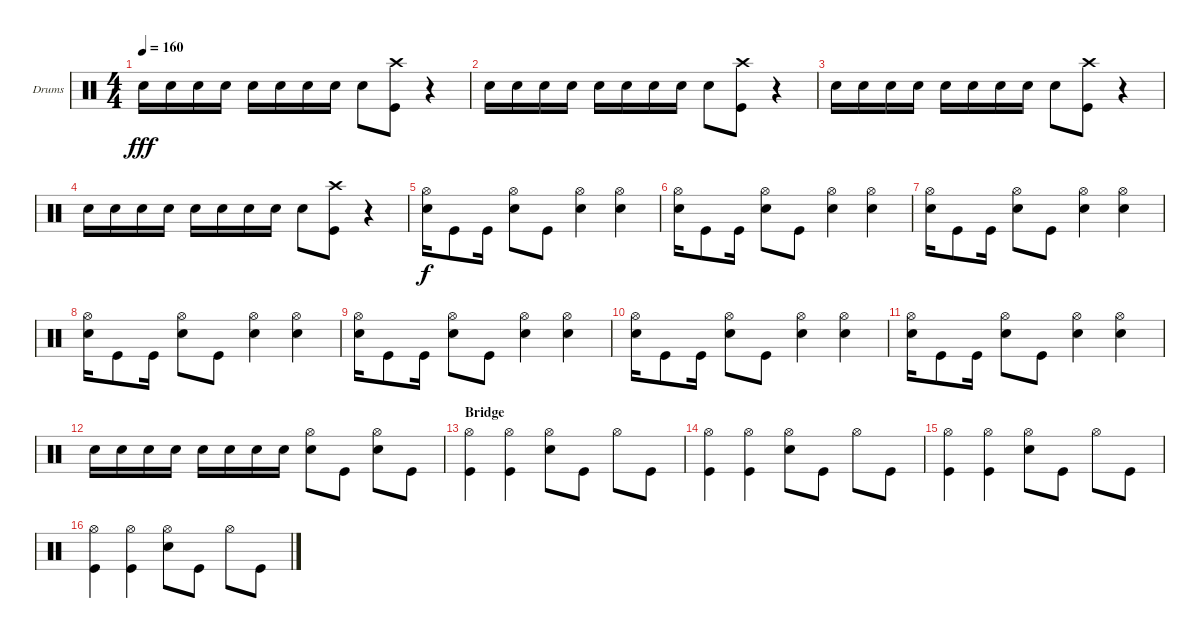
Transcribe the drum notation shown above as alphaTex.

\bracketExtendMode groupsimilarinstruments
\firstSystemTrackNameOrientation horizontal
\otherSystemsTrackNameOrientation horizontal
\track ("Lars Ulrich (Drum)" "Drums") {instrument percussion}
\staff {score}
\articulation defaults
\ts (4 4)
\tempo 160
\clef neutral
\ks c "Snare (hit) 2".16{dy fff} "Snare (hit) 2".16 "Snare (hit) 2".16 "Snare (hit) 2".16 "Snare (hit) 2".16 "Snare (hit) 2".16 "Snare (hit) 2".16 "Snare (hit) 2".16 "Snare (hit) 2".8
("Crash high (hit)" "Kick (hit)").8 r.4 |
"Snare (hit) 2".16 "Snare (hit) 2".16 "Snare (hit) 2".16 "Snare (hit) 2".16 "Snare (hit) 2".16 "Snare (hit) 2".16 "Snare (hit) 2".16 "Snare (hit) 2".16 "Snare (hit) 2".8 ("Crash high (hit)" "Kick (hit)").8 r.4 |
"Snare (hit) 2".16 "Snare (hit) 2".16 "Snare (hit) 2".16 "Snare (hit) 2".16 "Snare (hit) 2".16 "Snare (hit) 2".16 "Snare (hit) 2".16 "Snare (hit) 2".16 "Snare (hit) 2".8 ("Crash high (hit)" "Kick (hit)").8 r.4 |
"Snare (hit) 2".16 "Snare (hit) 2".16 "Snare (hit) 2".16 "Snare (hit) 2".16 "Snare (hit) 2".16 "Snare (hit) 2".16 "Snare (hit) 2".16 "Snare (hit) 2".16 "Snare (hit) 2".8 ("Crash high (hit)" "Kick (hit)").8 r.4 |
("Hi-Hat (open)" "Snare (hit) 2").16{dy f} "Kick (hit)".8 "Kick (hit)".16 ("Hi-Hat (open)" "Snare (hit) 2").8 "Kick (hit)".8 ("Hi-Hat (open)" "Snare (hit) 2").4 ("Hi-Hat (open)" "Snare (hit) 2").4 |
("Hi-Hat (open)" "Snare (hit) 2").16 "Kick (hit)".8 "Kick (hit)".16 ("Hi-Hat (open)" "Snare (hit) 2").8 "Kick (hit)".8 ("Hi-Hat (open)" "Snare (hit) 2").4 ("Hi-Hat (open)" "Snare (hit) 2").4 |
("Hi-Hat (open)" "Snare (hit) 2").16 "Kick (hit)".8 "Kick (hit)".16 ("Hi-Hat (open)" "Snare (hit) 2").8 "Kick (hit)".8 ("Hi-Hat (open)" "Snare (hit) 2").4 ("Hi-Hat (open)" "Snare (hit) 2").4 |
("Hi-Hat (open)" "Snare (hit) 2").16 "Kick (hit)".8 "Kick (hit)".16 ("Hi-Hat (open)" "Snare (hit) 2").8 "Kick (hit)".8 ("Hi-Hat (open)" "Snare (hit) 2").4 ("Hi-Hat (open)" "Snare (hit) 2").4 |
("Hi-Hat (open)" "Snare (hit) 2").16 "Kick (hit)".8 "Kick (hit)".16 ("Hi-Hat (open)" "Snare (hit) 2").8 "Kick (hit)".8 ("Hi-Hat (open)" "Snare (hit) 2").4 ("Hi-Hat (open)" "Snare (hit) 2").4 |
("Hi-Hat (open)" "Snare (hit) 2").16 "Kick (hit)".8 "Kick (hit)".16 ("Hi-Hat (open)" "Snare (hit) 2").8 "Kick (hit)".8 ("Hi-Hat (open)" "Snare (hit) 2").4 ("Hi-Hat (open)" "Snare (hit) 2").4 |
("Hi-Hat (open)" "Snare (hit) 2").16 "Kick (hit)".8 "Kick (hit)".16 ("Hi-Hat (open)" "Snare (hit) 2").8 "Kick (hit)".8 ("Hi-Hat (open)" "Snare (hit) 2").4 ("Hi-Hat (open)" "Snare (hit) 2").4 |
"Snare (hit) 2".16 "Snare (hit) 2".16 "Snare (hit) 2".16 "Snare (hit) 2".16 "Snare (hit) 2".16 "Snare (hit) 2".16 "Snare (hit) 2".16 "Snare (hit) 2".16 ("Hi-Hat (open)" "Snare (hit) 2").8 "Kick (hit)".8 ("Hi-Hat (open)" "Snare (hit) 2").8 "Kick (hit)".8 |
\section ("" "Bridge")
("Hi-Hat (open)" "Kick (hit)").4 ("Hi-Hat (open)" "Kick (hit)").4 ("Hi-Hat (open)" "Snare (hit) 2").8 "Kick (hit)".8 "Hi-Hat (open)".8 "Kick (hit)".8 |
("Hi-Hat (open)" "Kick (hit)").4 ("Hi-Hat (open)" "Kick (hit)").4 ("Hi-Hat (open)" "Snare (hit) 2").8 "Kick (hit)".8 "Hi-Hat (open)".8 "Kick (hit)".8 |
("Hi-Hat (open)" "Kick (hit)").4 ("Hi-Hat (open)" "Kick (hit)").4 ("Hi-Hat (open)" "Snare (hit) 2").8 "Kick (hit)".8 "Hi-Hat (open)".8 "Kick (hit)".8 |
("Hi-Hat (open)" "Kick (hit)").4 ("Hi-Hat (open)" "Kick (hit)").4 ("Hi-Hat (open)" "Snare (hit) 2").8 "Kick (hit)".8 "Hi-Hat (open)".8 "Kick (hit)".8
